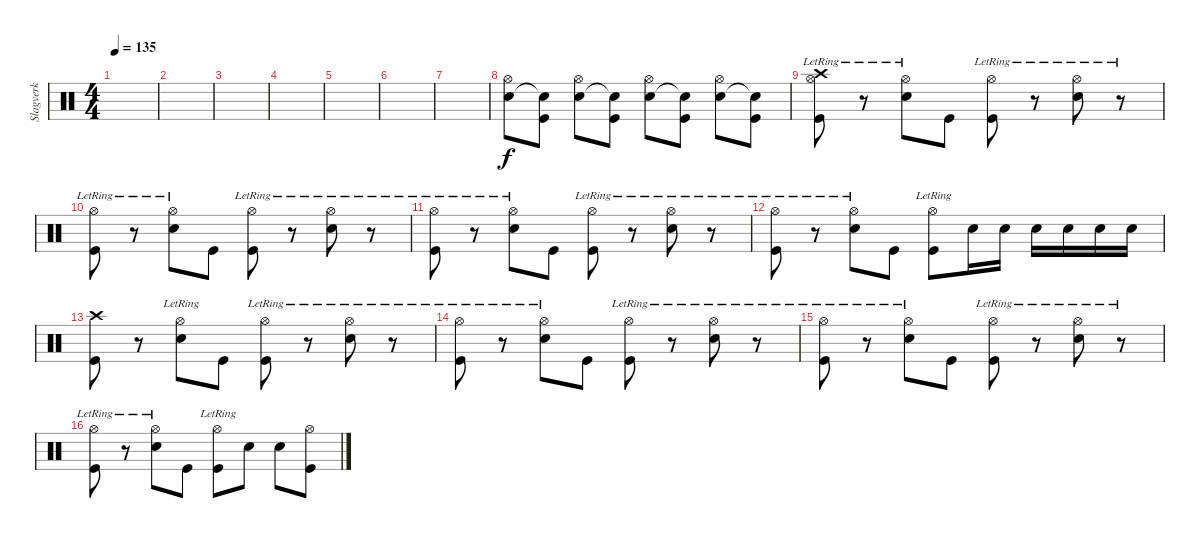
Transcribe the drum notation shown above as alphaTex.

\track ("Slagverk" "Slagverk") {instrument percussion}
\staff {score}
\articulation defaults
\ts (4 4)
\tempo 135
\clef neutral
\ks c
|
|
|
|
|
|
|
("Electric Snare (hit)" "Hi-Hat (open)").8 ("Snare (hit)"{t} "Kick (hit)").8 ("Electric Snare (hit)" "Hi-Hat (open)").8 ("Snare (hit)"{t} "Kick (hit)").8 ("Electric Snare (hit)" "Hi-Hat (open)").8 ("Snare (hit)"{t} "Kick (hit)").8 ("Electric Snare (hit)" "Hi-Hat (open)").8 ("Snare (hit)"{t} "Kick (hit)").8 |
("Crash high (hit)"{lr} "Hi-Hat (open)"{lr} "Kick (hit)").8 r.8 ("Electric Snare (hit)" "Hi-Hat (open)"{lr}).8 "Kick (hit)".8 ("Hi-Hat (open)"{lr} "Kick (hit)").8 r.8 ("Electric Snare (hit)" "Hi-Hat (open)"{lr}).8 r.8 |
("Hi-Hat (open)"{lr} "Kick (hit)").8 r.8 ("Electric Snare (hit)" "Hi-Hat (open)"{lr}).8 "Kick (hit)".8 ("Hi-Hat (open)"{lr} "Kick (hit)").8 r.8 ("Electric Snare (hit)" "Hi-Hat (open)"{lr}).8 r.8 |
("Hi-Hat (open)"{lr} "Kick (hit)").8 r.8 ("Electric Snare (hit)" "Hi-Hat (open)"{lr}).8 "Kick (hit)".8 ("Hi-Hat (open)"{lr} "Kick (hit)").8 r.8 ("Electric Snare (hit)" "Hi-Hat (open)"{lr}).8 r.8 |
("Hi-Hat (open)"{lr} "Kick (hit)").8 r.8 ("Electric Snare (hit)" "Hi-Hat (open)"{lr}).8 "Kick (hit)".8 ("Hi-Hat (open)"{lr} "Kick (hit)").8 "Electric Snare (hit)".16 "Electric Snare (hit)".16 "Electric Snare (hit)".16 "Electric Snare (hit)".16 "Electric Snare (hit)".16 "Electric Snare (hit)".16 |
("Crash high (hit)" "Kick (hit)").8 r.8 ("Electric Snare (hit)" "Hi-Hat (open)"{lr}).8 "Kick (hit)".8 ("Hi-Hat (open)"{lr} "Kick (hit)").8 r.8 ("Electric Snare (hit)" "Hi-Hat (open)"{lr}).8 r.8 |
("Hi-Hat (open)"{lr} "Kick (hit)").8 r.8 ("Electric Snare (hit)" "Hi-Hat (open)"{lr}).8 "Kick (hit)".8 ("Hi-Hat (open)"{lr} "Kick (hit)").8 r.8 ("Electric Snare (hit)" "Hi-Hat (open)"{lr}).8 r.8 |
("Hi-Hat (open)"{lr} "Kick (hit)").8 r.8 ("Electric Snare (hit)" "Hi-Hat (open)"{lr}).8 "Kick (hit)".8 ("Hi-Hat (open)"{lr} "Kick (hit)").8 r.8 ("Electric Snare (hit)" "Hi-Hat (open)"{lr}).8 r.8 |
("Hi-Hat (open)"{lr} "Kick (hit)").8 r.8 ("Electric Snare (hit)" "Hi-Hat (open)"{lr}).8 "Kick (hit)".8 ("Hi-Hat (open)"{lr} "Kick (hit)").8 "Electric Snare (hit)".8 "Electric Snare (hit)".8 ("Hi-Hat (open)" "Kick (hit)").8
